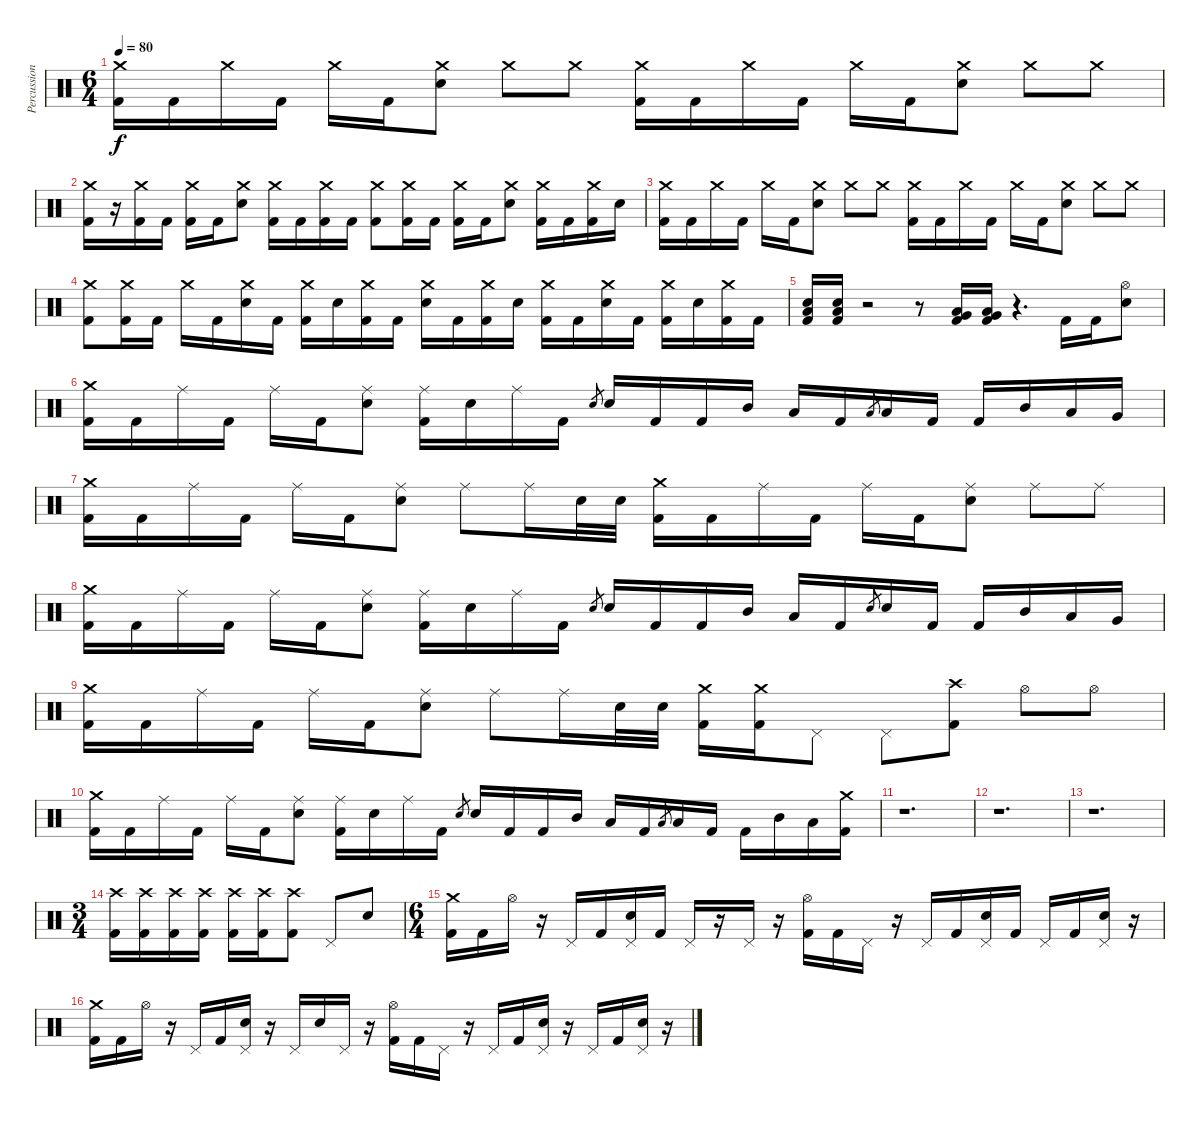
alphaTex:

\track ("Percussion" "Percussion") {instrument percussion}
\staff {score}
\articulation defaults
\ts (6 4)
\tempo 80
\clef neutral
\ks c
("Crash medium (hit)" "Kick (hit) 2").16{dy f} "Kick (hit) 2".16 "Crash medium (hit)".16 "Kick (hit) 2".16 "Crash medium (hit)".16 "Kick (hit) 2".16 ("Crash medium (hit)" "Electric Snare (hit)").8 "Crash medium (hit)".8 "Crash medium (hit)".8 ("Crash medium (hit)" "Kick (hit) 2").16 "Kick (hit) 2".16 "Crash medium (hit)".16 "Kick (hit) 2".16 "Crash medium (hit)".16 "Kick (hit) 2".16 ("Crash medium (hit)" "Electric Snare (hit)").8 "Crash medium (hit)".8 "Crash medium (hit)".8 |
("Crash medium (hit)" "Kick (hit) 2").16 r.16 ("Crash medium (hit)" "Kick (hit) 2").16 "Kick (hit) 2".16 ("Crash medium (hit)" "Kick (hit) 2").16 "Kick (hit) 2".16 ("Crash medium (hit)" "Electric Snare (hit)").8 ("Crash medium (hit)" "Kick (hit) 2").16 "Kick (hit) 2".16 ("Crash medium (hit)" "Kick (hit) 2").16 "Kick (hit) 2".16 ("Crash medium (hit)" "Kick (hit) 2").8 ("Crash medium (hit)" "Kick (hit) 2").16 "Kick (hit) 2".16 ("Crash medium (hit)" "Kick (hit) 2").16 "Kick (hit) 2".16 ("Crash medium (hit)" "Electric Snare (hit)").8 ("Crash medium (hit)" "Kick (hit) 2").16 "Kick (hit) 2".16 ("Crash medium (hit)" "Kick (hit) 2").16 "Electric Snare (hit)".16 |
("Crash medium (hit)" "Kick (hit) 2").16 "Kick (hit) 2".16 "Crash medium (hit)".16 "Kick (hit) 2".16 "Crash medium (hit)".16 "Kick (hit) 2".16 ("Crash medium (hit)" "Electric Snare (hit)").8 "Crash medium (hit)".8 "Crash medium (hit)".8 ("Crash medium (hit)" "Kick (hit) 2").16 "Kick (hit) 2".16 "Crash medium (hit)".16 "Kick (hit) 2".16 "Crash medium (hit)".16 "Kick (hit) 2".16 ("Crash medium (hit)" "Electric Snare (hit)").8 "Crash medium (hit)".8 "Crash medium (hit)".8 |
("Crash medium (hit)" "Kick (hit) 2").8 ("Crash medium (hit)" "Kick (hit) 2").16 "Kick (hit) 2".16 "Crash medium (hit)".16 "Kick (hit) 2".16 ("Crash medium (hit)" "Electric Snare (hit)").16 "Kick (hit) 2".16 ("Crash medium (hit)" "Kick (hit) 2").16 "Electric Snare (hit)".16 ("Crash medium (hit)" "Kick (hit) 2").16 "Kick (hit) 2".16 ("Crash medium (hit)" "Electric Snare (hit)").16 "Kick (hit) 2".16 ("Crash medium (hit)" "Kick (hit) 2").16 "Electric Snare (hit)".16 ("Crash medium (hit)" "Kick (hit) 2").16 "Kick (hit) 2".16 ("Crash medium (hit)" "Electric Snare (hit)").16 "Kick (hit) 2".16 ("Crash medium (hit)" "Kick (hit) 2").16 "Electric Snare (hit)".16 ("Crash medium (hit)" "Kick (hit) 2").16 "Kick (hit) 2".16 |
("Low Floor Tom (hit)" "Electric Snare (hit)" "Kick (hit) 2").16 ("Low Floor Tom (hit)" "Electric Snare (hit)" "Kick (hit) 2").16 r.2 r.8 ("Low Floor Tom (hit)" "Very Low Tom (hit)" "Kick (hit) 2").16 ("Low Floor Tom (hit)" "Very Low Tom (hit)" "Kick (hit) 2").16 r.4{d} "Kick (hit) 2".16 "Kick (hit) 2".16 ("Hi-Hat (open)" "Electric Snare (hit)").8 |
("Crash medium (hit)" "Kick (hit) 2").16 "Kick (hit) 2".16 "Ride (middle)".16 "Kick (hit) 2".16 "Ride (middle)".16 "Kick (hit) 2".16 ("Ride (middle)" "Electric Snare (hit)").8 ("Ride (middle)" "Kick (hit) 2").16 "Electric Snare (hit)".16 "Ride (middle)".16 "Kick (hit) 2".16 "Electric Snare (hit)".8{gr} "Electric Snare (hit)".16 "Kick (hit) 2".16 "Kick (hit) 2".16 "Mid Tom (hit)".16 "Low Tom (hit)".16 "Kick (hit) 2".16 "Low Tom (hit)".8{gr} "Low Tom (hit)".16 "Kick (hit) 2".16 "Kick (hit) 2".16 "Mid Tom (hit)".16 "Low Tom (hit)".16 "Very Low Tom (hit)".16 |
("Crash medium (hit)" "Kick (hit) 2").16 "Kick (hit) 2".16 "Ride (middle)".16 "Kick (hit) 2".16 "Ride (middle)".16 "Kick (hit) 2".16 ("Ride (middle)" "Electric Snare (hit)").8 "Ride (middle)".8 "Ride (middle)".16 "Electric Snare (hit)".32 "Electric Snare (hit)".32 ("Crash medium (hit)" "Kick (hit) 2").16 "Kick (hit) 2".16 "Ride (middle)".16 "Kick (hit) 2".16 "Ride (middle)".16 "Kick (hit) 2".16 ("Ride (middle)" "Electric Snare (hit)").8 "Ride (middle)".8 "Ride (middle)".8 |
("Crash medium (hit)" "Kick (hit) 2").16 "Kick (hit) 2".16 "Ride (middle)".16 "Kick (hit) 2".16 "Ride (middle)".16 "Kick (hit) 2".16 ("Ride (middle)" "Electric Snare (hit)").8 ("Ride (middle)" "Kick (hit) 2").16 "Electric Snare (hit)".16 "Ride (middle)".16 "Kick (hit) 2".16 "Electric Snare (hit)".8{gr} "Electric Snare (hit)".16 "Kick (hit) 2".16 "Kick (hit) 2".16 "Mid Tom (hit)".16 "Low Tom (hit)".16 "Kick (hit) 2".16 "Electric Snare (hit)".8{gr} "Electric Snare (hit)".16 "Kick (hit) 2".16 "Kick (hit) 2".16 "Mid Tom (hit)".16 "Low Tom (hit)".16 "Very Low Tom (hit)".16 |
("Crash medium (hit)" "Kick (hit) 2").16 "Kick (hit) 2".16 "Ride (middle)".16 "Kick (hit) 2".16 "Ride (middle)".16 "Kick (hit) 2".16 ("Ride (middle)" "Electric Snare (hit)").8 "Ride (middle)".8 "Ride (middle)".16 "Electric Snare (hit)".32 "Electric Snare (hit)".32 ("Crash medium (hit)" "Kick (hit) 2").16 ("Crash medium (hit)" "Kick (hit) 2").16 "Pedal Hi-Hat (hit)".8 "Pedal Hi-Hat (hit)".8 ("Crash high (hit)" "Kick (hit) 2").8 "Hi-Hat (open)".8 "Hi-Hat (open)".8 |
("Crash medium (hit)" "Kick (hit) 2").16 "Kick (hit) 2".16 "Ride (middle)".16 "Kick (hit) 2".16 "Ride (middle)".16 "Kick (hit) 2".16 ("Ride (middle)" "Electric Snare (hit)").8 ("Ride (middle)" "Kick (hit) 2").16 "Electric Snare (hit)".16 "Ride (middle)".16 "Kick (hit) 2".16 "Electric Snare (hit)".8{gr} "Electric Snare (hit)".16 "Kick (hit) 2".16 "Kick (hit) 2".16 "Mid Tom (hit)".16 "Low Tom (hit)".16 "Kick (hit) 2".16 "Low Tom (hit)".8{gr} "Low Tom (hit)".16 "Kick (hit) 2".16 "Kick (hit) 2".16 "Mid Tom (hit)".16 "Low Tom (hit)".16 ("Crash medium (hit)" "Kick (hit) 2").16 |
r.1{d} |
r.1{d} |
r.1{d} |
\ts (3 4)
("Crash high (hit)" "Kick (hit) 2").16 ("Crash high (hit)" "Kick (hit) 2").16 ("Crash high (hit)" "Kick (hit) 2").16 ("Crash high (hit)" "Kick (hit) 2").16 ("Crash high (hit)" "Kick (hit) 2").16 ("Crash high (hit)" "Kick (hit) 2").16 ("Crash high (hit)" "Kick (hit) 2").8 "Pedal Hi-Hat (hit)".8 "Electric Snare (hit)".8 |
\ts (6 4)
("Crash medium (hit)" "Kick (hit) 2").16 "Kick (hit) 2".16 "Hi-Hat (open)".16 r.16 "Pedal Hi-Hat (hit)".16 "Kick (hit) 2".16 ("Pedal Hi-Hat (hit)" "Electric Snare (hit)").16 "Kick (hit) 2".16 "Pedal Hi-Hat (hit)".16 r.16 "Pedal Hi-Hat (hit)".16 r.16 ("Hi-Hat (open)" "Kick (hit) 2").16 "Kick (hit) 2".16 "Pedal Hi-Hat (hit)".16 r.16 "Pedal Hi-Hat (hit)".16 "Kick (hit) 2".16 ("Pedal Hi-Hat (hit)" "Electric Snare (hit)").16 "Kick (hit) 2".16 "Pedal Hi-Hat (hit)".16 "Kick (hit) 2".16 ("Pedal Hi-Hat (hit)" "Electric Snare (hit)").16 r.16 |
("Crash medium (hit)" "Kick (hit) 2").16 "Kick (hit) 2".16 "Hi-Hat (open)".16 r.16 "Pedal Hi-Hat (hit)".16 "Kick (hit) 2".16 ("Pedal Hi-Hat (hit)" "Electric Snare (hit)").16 r.16 "Pedal Hi-Hat (hit)".16 "Electric Snare (hit)".16 "Pedal Hi-Hat (hit)".16 r.16 ("Hi-Hat (open)" "Kick (hit) 2").16 "Kick (hit) 2".16 "Pedal Hi-Hat (hit)".16 r.16 "Pedal Hi-Hat (hit)".16 "Kick (hit) 2".16 ("Pedal Hi-Hat (hit)" "Electric Snare (hit)").16 r.16 "Pedal Hi-Hat (hit)".16 "Kick (hit) 2".16 ("Pedal Hi-Hat (hit)" "Electric Snare (hit)").16 r.16
